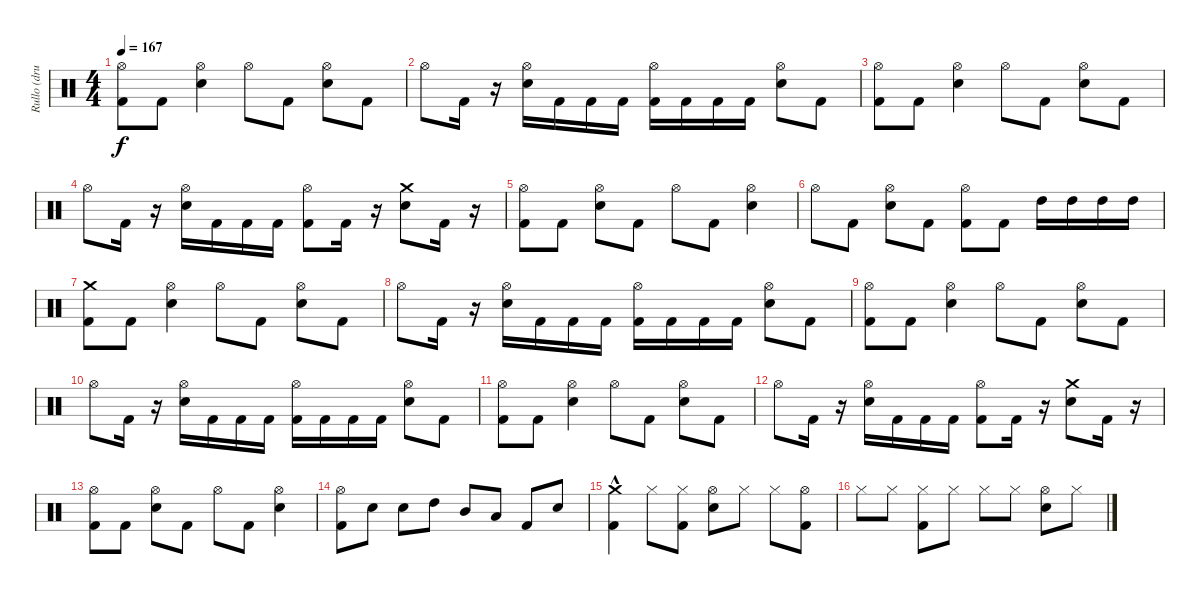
\track ("Rullo (drums)" "Rullo (dru") {instrument percussion}
\staff {score}
\articulation defaults
\ts (4 4)
\tempo 167
\clef neutral
\ks c
("Hi-Hat (open)" "Kick (hit) 2").8{dy f} "Kick (hit) 2".8 ("Hi-Hat (open)" "Electric Snare (hit)").4 "Hi-Hat (open)".8 "Kick (hit) 2".8 ("Hi-Hat (open)" "Electric Snare (hit)").8 "Kick (hit) 2".8 |
"Hi-Hat (open)".8 "Kick (hit) 2".16 r.16 ("Hi-Hat (open)" "Electric Snare (hit)").16 "Kick (hit) 2".16 "Kick (hit) 2".16 "Kick (hit) 2".16 ("Hi-Hat (open)" "Kick (hit) 2").16 "Kick (hit) 2".16 "Kick (hit) 2".16 "Kick (hit) 2".16 ("Hi-Hat (open)" "Electric Snare (hit)").8 "Kick (hit) 2".8 |
("Hi-Hat (open)" "Kick (hit) 2").8 "Kick (hit) 2".8 ("Hi-Hat (open)" "Electric Snare (hit)").4 "Hi-Hat (open)".8 "Kick (hit) 2".8 ("Hi-Hat (open)" "Electric Snare (hit)").8 "Kick (hit) 2".8 |
"Hi-Hat (open)".8 "Kick (hit) 2".16 r.16 ("Hi-Hat (open)" "Electric Snare (hit)").16 "Kick (hit) 2".16 "Kick (hit) 2".16 "Kick (hit) 2".16 ("Hi-Hat (open)" "Kick (hit) 2").8 "Kick (hit) 2".16 r.16 ("Crash medium (hit)" "Electric Snare (hit)").8 "Kick (hit) 2".16 r.16 |
("Hi-Hat (open)" "Kick (hit) 2").8 "Kick (hit) 2".8 ("Hi-Hat (open)" "Electric Snare (hit)").8 "Kick (hit) 2".8 "Hi-Hat (open)".8 "Kick (hit) 2".8 ("Hi-Hat (open)" "Electric Snare (hit)").4 |
"Hi-Hat (open)".8 "Kick (hit) 2".8 ("Hi-Hat (open)" "Electric Snare (hit)").8 "Kick (hit) 2".8 ("Hi-Hat (open)" "Kick (hit) 2").8 "Kick (hit) 2".8 "High Tom (hit)".16 "High Tom (hit)".16 "High Tom (hit)".16 "High Tom (hit)".16 |
("Crash medium (hit)" "Kick (hit) 2").8 "Kick (hit) 2".8 ("Hi-Hat (open)" "Electric Snare (hit)").4 "Hi-Hat (open)".8 "Kick (hit) 2".8 ("Hi-Hat (open)" "Electric Snare (hit)").8 "Kick (hit) 2".8 |
"Hi-Hat (open)".8 "Kick (hit) 2".16 r.16 ("Hi-Hat (open)" "Electric Snare (hit)").16 "Kick (hit) 2".16 "Kick (hit) 2".16 "Kick (hit) 2".16 ("Hi-Hat (open)" "Kick (hit) 2").16 "Kick (hit) 2".16 "Kick (hit) 2".16 "Kick (hit) 2".16 ("Hi-Hat (open)" "Electric Snare (hit)").8 "Kick (hit) 2".8 |
("Hi-Hat (open)" "Kick (hit) 2").8 "Kick (hit) 2".8 ("Hi-Hat (open)" "Electric Snare (hit)").4 "Hi-Hat (open)".8 "Kick (hit) 2".8 ("Hi-Hat (open)" "Electric Snare (hit)").8 "Kick (hit) 2".8 |
"Hi-Hat (open)".8 "Kick (hit) 2".16 r.16 ("Hi-Hat (open)" "Electric Snare (hit)").16 "Kick (hit) 2".16 "Kick (hit) 2".16 "Kick (hit) 2".16 ("Hi-Hat (open)" "Kick (hit) 2").16 "Kick (hit) 2".16 "Kick (hit) 2".16 "Kick (hit) 2".16 ("Hi-Hat (open)" "Electric Snare (hit)").8 "Kick (hit) 2".8 |
("Hi-Hat (open)" "Kick (hit) 2").8 "Kick (hit) 2".8 ("Hi-Hat (open)" "Electric Snare (hit)").4 "Hi-Hat (open)".8 "Kick (hit) 2".8 ("Hi-Hat (open)" "Electric Snare (hit)").8 "Kick (hit) 2".8 |
"Hi-Hat (open)".8 "Kick (hit) 2".16 r.16 ("Hi-Hat (open)" "Electric Snare (hit)").16 "Kick (hit) 2".16 "Kick (hit) 2".16 "Kick (hit) 2".16 ("Hi-Hat (open)" "Kick (hit) 2").8 "Kick (hit) 2".16 r.16 ("Crash medium (hit)" "Electric Snare (hit)").8 "Kick (hit) 2".16 r.16 |
("Hi-Hat (open)" "Kick (hit) 2").8 "Kick (hit) 2".8 ("Hi-Hat (open)" "Electric Snare (hit)").8 "Kick (hit) 2".8 "Hi-Hat (open)".8 "Kick (hit) 2".8 ("Hi-Hat (open)" "Electric Snare (hit)").4 |
("Kick (hit) 2" "Hi-Hat (open)").8 "Electric Snare (hit)".8 "Electric Snare (hit)".8 "High Tom (hit)".8 "Mid Tom (hit)".8 "Low Tom (hit)".8 "Kick (hit) 2".8 "Electric Snare (hit)".8 |
("Crash medium (hit)" "Kick (hit) 2"{hac}).4 "Hi-Hat (closed)".8 ("Hi-Hat (closed)" "Kick (hit) 2").8 ("Hi-Hat (open)" "Electric Snare (hit)").8 "Hi-Hat (closed)".8 "Hi-Hat (closed)".8 ("Hi-Hat (open)" "Kick (hit) 2").8 |
"Hi-Hat (closed)".8 "Hi-Hat (closed)".8 ("Hi-Hat (closed)" "Kick (hit) 2").8 "Hi-Hat (closed)".8 "Hi-Hat (closed)".8 "Hi-Hat (closed)".8 ("Hi-Hat (open)" "Electric Snare (hit)").8 "Hi-Hat (closed)".8
